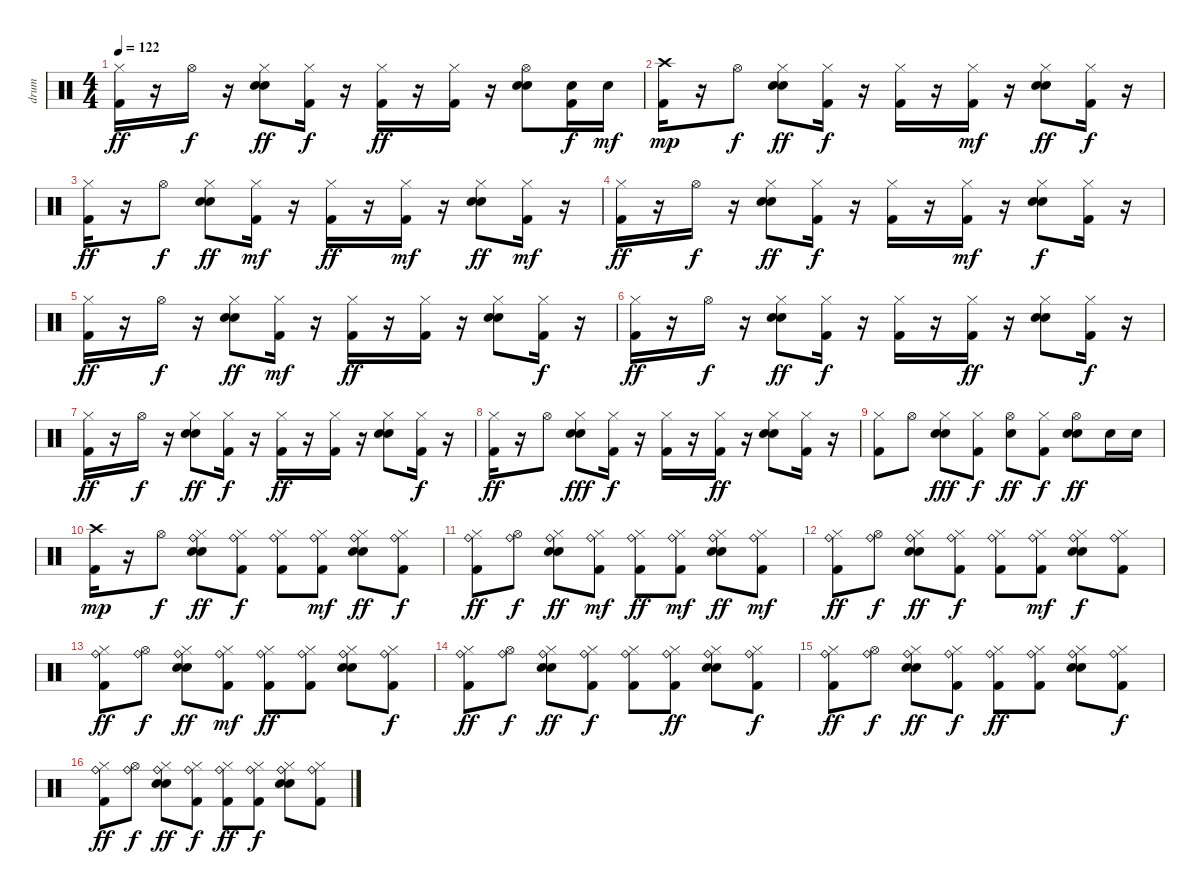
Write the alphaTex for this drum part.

\track ("drum" "drum") {instrument percussion}
\staff {score}
\articulation defaults
\ts (4 4)
\tempo 122
\clef neutral
\ks c
("Kick (hit) 2" "Hi-Hat (closed)").16{dy ff} r.16 "Hi-Hat (open)".16{dy f} r.16 ("Electric Snare (hit)" "Hi-Hat (closed)" "Hand Clap (hit)").8{dy ff} ("Kick (hit) 2" "Hi-Hat (closed)").16{dy f} r.16 ("Kick (hit) 2" "Hi-Hat (closed)").16{dy ff} r.16 ("Kick (hit) 2" "Hi-Hat (closed)").16 r.16 ("Electric Snare (hit)" "Hi-Hat (open)" "Hand Clap (hit)").8 ("Electric Snare (hit)" "Kick (hit) 2").16{dy f} "Electric Snare (hit)".16{dy mf} |
("Kick (hit) 2" "Crash high (hit)").16{dy mp} r.16 "Hi-Hat (open)".8{dy f} ("Electric Snare (hit)" "Hi-Hat (closed)" "Hand Clap (hit)").8{dy ff} ("Kick (hit) 2" "Hi-Hat (closed)").16{dy f} r.16 ("Kick (hit) 2" "Hi-Hat (closed)").16 r.16 ("Kick (hit) 2" "Hi-Hat (closed)").16{dy mf} r.16 ("Electric Snare (hit)" "Hi-Hat (closed)" "Hand Clap (hit)").8{dy ff} ("Kick (hit) 2" "Hi-Hat (closed)").16{dy f} r.16 |
("Kick (hit) 2" "Hi-Hat (closed)").16{dy ff} r.16 "Hi-Hat (open)".8{dy f} ("Electric Snare (hit)" "Hi-Hat (closed)" "Hand Clap (hit)").8{dy ff} ("Kick (hit) 2" "Hi-Hat (closed)").16{dy mf} r.16 ("Kick (hit) 2" "Hi-Hat (closed)").16{dy ff} r.16 ("Kick (hit) 2" "Hi-Hat (closed)").16{dy mf} r.16 ("Electric Snare (hit)" "Hi-Hat (closed)" "Hand Clap (hit)").8{dy ff} ("Kick (hit) 2" "Hi-Hat (closed)").16{dy mf} r.16 |
("Kick (hit) 2" "Hi-Hat (closed)").16{dy ff} r.16 "Hi-Hat (open)".16{dy f} r.16 ("Electric Snare (hit)" "Hi-Hat (closed)" "Hand Clap (hit)").8{dy ff} ("Kick (hit) 2" "Hi-Hat (closed)").16{dy f} r.16 ("Kick (hit) 2" "Hi-Hat (closed)").16 r.16 ("Kick (hit) 2" "Hi-Hat (closed)").16{dy mf} r.16 ("Electric Snare (hit)" "Hi-Hat (closed)" "Hand Clap (hit)").8{dy f} ("Kick (hit) 2" "Hi-Hat (closed)").16 r.16 |
("Kick (hit) 2" "Hi-Hat (closed)").16{dy ff} r.16 "Hi-Hat (open)".16{dy f} r.16 ("Electric Snare (hit)" "Hi-Hat (closed)" "Hand Clap (hit)").8{dy ff} ("Kick (hit) 2" "Hi-Hat (closed)").16{dy mf} r.16 ("Kick (hit) 2" "Hi-Hat (closed)").16{dy ff} r.16 ("Kick (hit) 2" "Hi-Hat (closed)").16 r.16 ("Electric Snare (hit)" "Hi-Hat (closed)" "Hand Clap (hit)").8 ("Kick (hit) 2" "Hi-Hat (closed)").16{dy f} r.16 |
("Kick (hit) 2" "Hi-Hat (closed)").16{dy ff} r.16 "Hi-Hat (open)".16{dy f} r.16 ("Electric Snare (hit)" "Hi-Hat (closed)" "Hand Clap (hit)").8{dy ff} ("Kick (hit) 2" "Hi-Hat (closed)").16{dy f} r.16 ("Kick (hit) 2" "Hi-Hat (closed)").16 r.16 ("Kick (hit) 2" "Hi-Hat (closed)").16{dy ff} r.16 ("Electric Snare (hit)" "Hi-Hat (closed)" "Hand Clap (hit)").8 ("Kick (hit) 2" "Hi-Hat (closed)").16{dy f} r.16 |
("Kick (hit) 2" "Hi-Hat (closed)").16{dy ff} r.16 "Hi-Hat (open)".16{dy f} r.16 ("Electric Snare (hit)" "Hi-Hat (closed)" "Hand Clap (hit)").8{dy ff} ("Kick (hit) 2" "Hi-Hat (closed)").16{dy f} r.16 ("Kick (hit) 2" "Hi-Hat (closed)").16{dy ff} r.16 ("Kick (hit) 2" "Hi-Hat (closed)").16 r.16 ("Electric Snare (hit)" "Hi-Hat (closed)" "Hand Clap (hit)").8 ("Kick (hit) 2" "Hi-Hat (closed)").16{dy f} r.16 |
("Kick (hit) 2" "Hi-Hat (closed)").16{dy ff} r.16 "Hi-Hat (open)".8 ("Electric Snare (hit)" "Hi-Hat (closed)" "Hand Clap (hit)").8{dy fff} ("Kick (hit) 2" "Hi-Hat (closed)").16{dy f} r.16 ("Kick (hit) 2" "Hi-Hat (closed)").16 r.16 ("Kick (hit) 2" "Hi-Hat (closed)").16{dy ff} r.16 ("Electric Snare (hit)" "Hi-Hat (closed)" "Hand Clap (hit)").8 ("Kick (hit) 2" "Hi-Hat (closed)").16 r.16 |
("Kick (hit) 2" "Hi-Hat (closed)").8 "Hi-Hat (open)".8 ("Electric Snare (hit)" "Hi-Hat (closed)" "Hand Clap (hit)").8{dy fff} ("Kick (hit) 2" "Hi-Hat (closed)").8{dy f} ("Electric Snare (hit)" "Hi-Hat (open)").8{dy ff} ("Kick (hit) 2" "Hi-Hat (closed)").8{dy f} ("Electric Snare (hit)" "Hi-Hat (open)" "Hand Clap (hit)").8{dy ff} "Electric Snare (hit)".16 "Electric Snare (hit)".16 |
("Kick (hit) 2" "Crash high (hit)").16{dy mp} r.16 "Hi-Hat (open)".8{dy f} ("Electric Snare (hit)" "Hi-Hat (closed)" "Hand Clap (hit)" "Ride (bell)").8{dy ff} ("Kick (hit) 2" "Hi-Hat (closed)" "Ride (bell)").8{dy f} ("Kick (hit) 2" "Hi-Hat (closed)" "Ride (bell)").8 ("Kick (hit) 2" "Hi-Hat (closed)" "Ride (bell)").8{dy mf} ("Electric Snare (hit)" "Hi-Hat (closed)" "Hand Clap (hit)" "Ride (bell)").8{dy ff} ("Kick (hit) 2" "Hi-Hat (closed)" "Ride (bell)").8{dy f} |
("Kick (hit) 2" "Hi-Hat (closed)" "Ride (bell)").8{dy ff} ("Hi-Hat (open)" "Ride (bell)").8{dy f} ("Electric Snare (hit)" "Hi-Hat (closed)" "Hand Clap (hit)" "Ride (bell)").8{dy ff} ("Kick (hit) 2" "Hi-Hat (closed)" "Ride (bell)").8{dy mf} ("Kick (hit) 2" "Hi-Hat (closed)" "Ride (bell)").8{dy ff} ("Kick (hit) 2" "Hi-Hat (closed)" "Ride (bell)").8{dy mf} ("Electric Snare (hit)" "Hi-Hat (closed)" "Hand Clap (hit)" "Ride (bell)").8{dy ff} ("Kick (hit) 2" "Hi-Hat (closed)" "Ride (bell)").8{dy mf} |
("Kick (hit) 2" "Hi-Hat (closed)" "Ride (bell)").8{dy ff} ("Hi-Hat (open)" "Ride (bell)").8{dy f} ("Electric Snare (hit)" "Hi-Hat (closed)" "Hand Clap (hit)" "Ride (bell)").8{dy ff} ("Kick (hit) 2" "Hi-Hat (closed)" "Ride (bell)").8{dy f} ("Kick (hit) 2" "Hi-Hat (closed)" "Ride (bell)").8 ("Kick (hit) 2" "Hi-Hat (closed)" "Ride (bell)").8{dy mf} ("Electric Snare (hit)" "Hi-Hat (closed)" "Hand Clap (hit)" "Ride (bell)").8{dy f} ("Kick (hit) 2" "Hi-Hat (closed)" "Ride (bell)").8 |
("Kick (hit) 2" "Hi-Hat (closed)" "Ride (bell)").8{dy ff} ("Hi-Hat (open)" "Ride (bell)").8{dy f} ("Electric Snare (hit)" "Hi-Hat (closed)" "Hand Clap (hit)" "Ride (bell)").8{dy ff} ("Kick (hit) 2" "Hi-Hat (closed)" "Ride (bell)").8{dy mf} ("Kick (hit) 2" "Hi-Hat (closed)" "Ride (bell)").8{dy ff} ("Kick (hit) 2" "Hi-Hat (closed)" "Ride (bell)").8 ("Electric Snare (hit)" "Hi-Hat (closed)" "Hand Clap (hit)" "Ride (bell)").8 ("Kick (hit) 2" "Hi-Hat (closed)" "Ride (bell)").8{dy f} |
("Kick (hit) 2" "Hi-Hat (closed)" "Ride (bell)").8{dy ff} ("Hi-Hat (open)" "Ride (bell)").8{dy f} ("Electric Snare (hit)" "Hi-Hat (closed)" "Hand Clap (hit)" "Ride (bell)").8{dy ff} ("Kick (hit) 2" "Hi-Hat (closed)" "Ride (bell)").8{dy f} ("Kick (hit) 2" "Hi-Hat (closed)" "Ride (bell)").8 ("Kick (hit) 2" "Hi-Hat (closed)" "Ride (bell)").8{dy ff} ("Electric Snare (hit)" "Hi-Hat (closed)" "Hand Clap (hit)" "Ride (bell)").8 ("Kick (hit) 2" "Hi-Hat (closed)" "Ride (bell)").8{dy f} |
("Kick (hit) 2" "Hi-Hat (closed)" "Ride (bell)").8{dy ff} ("Hi-Hat (open)" "Ride (bell)").8{dy f} ("Electric Snare (hit)" "Hi-Hat (closed)" "Hand Clap (hit)" "Ride (bell)").8{dy ff} ("Kick (hit) 2" "Hi-Hat (closed)" "Ride (bell)").8{dy f} ("Kick (hit) 2" "Hi-Hat (closed)" "Ride (bell)").8{dy ff} ("Kick (hit) 2" "Hi-Hat (closed)" "Ride (bell)").8 ("Electric Snare (hit)" "Hi-Hat (closed)" "Hand Clap (hit)" "Ride (bell)").8 ("Kick (hit) 2" "Hi-Hat (closed)" "Ride (bell)").8{dy f} |
("Kick (hit) 2" "Hi-Hat (closed)" "Ride (bell)").8{dy ff} ("Hi-Hat (open)" "Ride (bell)").8{dy f} ("Electric Snare (hit)" "Hi-Hat (closed)" "Hand Clap (hit)" "Ride (bell)").8{dy ff} ("Kick (hit) 2" "Hi-Hat (closed)" "Ride (bell)").8{dy f} ("Kick (hit) 2" "Hi-Hat (closed)" "Ride (bell)").8{dy ff} ("Kick (hit) 2" "Hi-Hat (closed)" "Ride (bell)").8{dy f} ("Electric Snare (hit)" "Hi-Hat (closed)" "Hand Clap (hit)" "Ride (bell)").8 ("Kick (hit) 2" "Hi-Hat (closed)" "Ride (bell)").8
